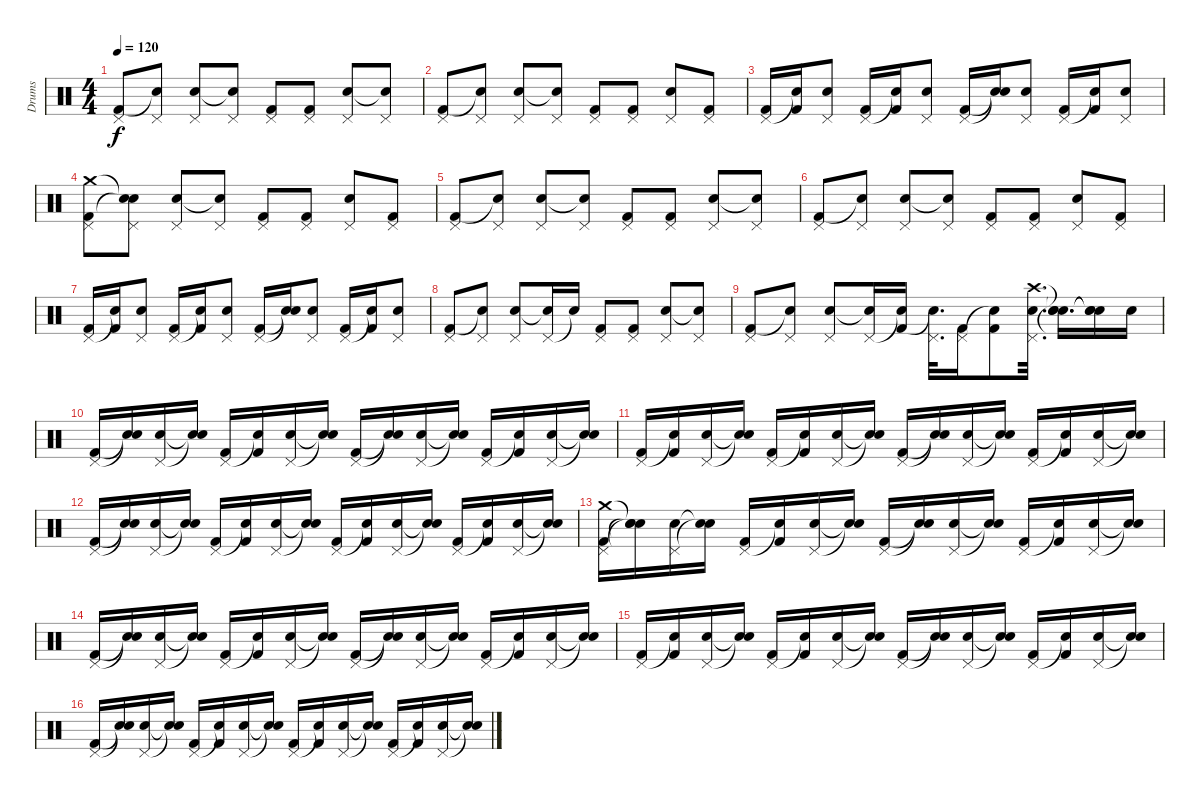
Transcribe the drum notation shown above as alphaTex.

\track ("Drums" "Drums") {instrument percussion}
\staff {score}
\articulation defaults
\ts (4 4)
\tempo 120
\clef neutral
\ks c
("Pedal Hi-Hat (hit)" "Kick (hit) 2").8{dy f} ("Pedal Hi-Hat (hit)" "Snare (hit)"{t}).8 ("Pedal Hi-Hat (hit)" "Snare (hit) 2").8 ("Pedal Hi-Hat (hit)" "Snare (hit)"{t}).8 ("Pedal Hi-Hat (hit)" "Kick (hit) 2").8 ("Pedal Hi-Hat (hit)" "Kick (hit) 2").8 ("Pedal Hi-Hat (hit)" "Snare (hit) 2").8 ("Pedal Hi-Hat (hit)" "Snare (hit)"{t}).8 |
("Pedal Hi-Hat (hit)" "Kick (hit) 2").8 ("Pedal Hi-Hat (hit)" "Snare (hit)"{t}).8 ("Pedal Hi-Hat (hit)" "Snare (hit) 2").8 ("Pedal Hi-Hat (hit)" "Snare (hit)"{t}).8 ("Pedal Hi-Hat (hit)" "Kick (hit) 2").8 ("Pedal Hi-Hat (hit)" "Kick (hit) 2").8 ("Pedal Hi-Hat (hit)" "Snare (hit) 2").8 ("Pedal Hi-Hat (hit)" "Kick (hit) 2").8 |
("Pedal Hi-Hat (hit)" "Kick (hit) 2").16 ("Snare (hit)"{t} "Kick (hit) 2").16 ("Pedal Hi-Hat (hit)" "Snare (hit) 2").8 ("Pedal Hi-Hat (hit)" "Kick (hit) 2").16 ("Snare (hit)"{t} "Kick (hit) 2").16 ("Pedal Hi-Hat (hit)" "Snare (hit) 2").8 ("Pedal Hi-Hat (hit)" "Kick (hit) 2").16 ("Snare (hit)"{t} "Snare (hit)"{t}).16 ("Pedal Hi-Hat (hit)" "Snare (hit) 2").8 ("Pedal Hi-Hat (hit)" "Kick (hit) 2").16 ("Snare (hit)"{t} "Kick (hit) 2").16 ("Pedal Hi-Hat (hit)" "Snare (hit) 2").8 |
("Pedal Hi-Hat (hit)" "Crash medium (hit)" "Kick (hit) 2").8 ("Pedal Hi-Hat (hit)" "Snare (hit)"{t} "Snare (hit)"{t}).8 ("Pedal Hi-Hat (hit)" "Snare (hit) 2").8 ("Pedal Hi-Hat (hit)" "Snare (hit)"{t}).8 ("Pedal Hi-Hat (hit)" "Kick (hit) 2").8 ("Pedal Hi-Hat (hit)" "Kick (hit) 2").8 ("Pedal Hi-Hat (hit)" "Snare (hit) 2").8 ("Pedal Hi-Hat (hit)" "Kick (hit) 2").8 |
("Pedal Hi-Hat (hit)" "Kick (hit) 2").8 ("Pedal Hi-Hat (hit)" "Snare (hit)"{t}).8 ("Pedal Hi-Hat (hit)" "Snare (hit) 2").8 ("Pedal Hi-Hat (hit)" "Snare (hit)"{t}).8 ("Pedal Hi-Hat (hit)" "Kick (hit) 2").8 ("Pedal Hi-Hat (hit)" "Kick (hit) 2").8 ("Pedal Hi-Hat (hit)" "Snare (hit) 2").8 ("Pedal Hi-Hat (hit)" "Snare (hit)"{t}).8 |
("Pedal Hi-Hat (hit)" "Kick (hit) 2").8 ("Pedal Hi-Hat (hit)" "Snare (hit)"{t}).8 ("Pedal Hi-Hat (hit)" "Snare (hit) 2").8 ("Pedal Hi-Hat (hit)" "Snare (hit)"{t}).8 ("Pedal Hi-Hat (hit)" "Kick (hit) 2").8 ("Pedal Hi-Hat (hit)" "Kick (hit) 2").8 ("Pedal Hi-Hat (hit)" "Snare (hit) 2").8 ("Pedal Hi-Hat (hit)" "Kick (hit) 2").8 |
("Pedal Hi-Hat (hit)" "Kick (hit) 2").16 ("Snare (hit)"{t} "Kick (hit) 2").16 ("Pedal Hi-Hat (hit)" "Snare (hit) 2").8 ("Pedal Hi-Hat (hit)" "Kick (hit) 2").16 ("Snare (hit)"{t} "Kick (hit) 2").16 ("Pedal Hi-Hat (hit)" "Snare (hit) 2").8 ("Pedal Hi-Hat (hit)" "Kick (hit) 2").16 ("Snare (hit)"{t} "Snare (hit)"{t}).16 ("Pedal Hi-Hat (hit)" "Snare (hit) 2").8 ("Pedal Hi-Hat (hit)" "Kick (hit) 2").16 ("Snare (hit)"{t} "Kick (hit) 2").16 ("Pedal Hi-Hat (hit)" "Snare (hit) 2").8 |
("Pedal Hi-Hat (hit)" "Kick (hit) 2").8 ("Pedal Hi-Hat (hit)" "Snare (hit)"{t}).8 ("Pedal Hi-Hat (hit)" "Snare (hit) 2").8 ("Pedal Hi-Hat (hit)" "Snare (hit)"{t}).16 "Snare (hit)"{t}.16 ("Pedal Hi-Hat (hit)" "Kick (hit) 2").8 ("Pedal Hi-Hat (hit)" "Kick (hit) 2").8 ("Pedal Hi-Hat (hit)" "Snare (hit) 2").8 ("Pedal Hi-Hat (hit)" "Snare (hit)"{t}).8 |
("Pedal Hi-Hat (hit)" "Kick (hit) 2").8 ("Pedal Hi-Hat (hit)" "Snare (hit)"{t}).8 ("Pedal Hi-Hat (hit)" "Snare (hit) 2").8 ("Pedal Hi-Hat (hit)" "Snare (hit)"{t}).16 ("Snare (hit)"{t} "Kick (hit) 2").16 ("Pedal Hi-Hat (hit)" "Snare (hit)"{t}).32{d} ("Pedal Hi-Hat (hit)" "Kick (hit) 2").16 ("Snare (hit)"{t} "Kick (hit) 2").8 ("Pedal Hi-Hat (hit)" "Crash high (hit)" "Snare (hit) 2").32{d} ("Snare (hit)"{t} "Snare (hit)"{t} "Snare (hit)"{t}).16{d} ("Snare (hit) 2" "Snare (hit)"{t} "Snare (hit)"{t}).16 "Snare (hit) 2".16 |
("Pedal Hi-Hat (hit)" "Kick (hit) 2").16 ("Snare (hit)"{t} "Snare (hit)"{t}).16 ("Pedal Hi-Hat (hit)" "Snare (hit) 2").16 ("Snare (hit)"{t} "Snare (hit)"{t}).16 ("Pedal Hi-Hat (hit)" "Kick (hit) 2").16 ("Snare (hit)"{t} "Kick (hit) 2").16 ("Pedal Hi-Hat (hit)" "Snare (hit) 2").16 ("Snare (hit)"{t} "Snare (hit)"{t}).16 ("Pedal Hi-Hat (hit)" "Kick (hit) 2").16 ("Snare (hit)"{t} "Snare (hit)"{t}).16 ("Pedal Hi-Hat (hit)" "Snare (hit) 2").16 ("Snare (hit)"{t} "Snare (hit)"{t}).16 ("Pedal Hi-Hat (hit)" "Kick (hit) 2").16 ("Snare (hit)"{t} "Kick (hit) 2").16 ("Pedal Hi-Hat (hit)" "Snare (hit) 2").16 ("Snare (hit)"{t} "Snare (hit)"{t}).16 |
("Pedal Hi-Hat (hit)" "Kick (hit) 2").16 ("Snare (hit)"{t} "Kick (hit) 2").16 ("Pedal Hi-Hat (hit)" "Snare (hit) 2").16 ("Snare (hit)"{t} "Snare (hit)"{t}).16 ("Pedal Hi-Hat (hit)" "Kick (hit) 2").16 ("Snare (hit)"{t} "Kick (hit) 2").16 ("Pedal Hi-Hat (hit)" "Snare (hit) 2").16 ("Snare (hit)"{t} "Snare (hit)"{t}).16 ("Pedal Hi-Hat (hit)" "Kick (hit) 2").16 ("Snare (hit)"{t} "Snare (hit)"{t}).16 ("Pedal Hi-Hat (hit)" "Snare (hit) 2").16 ("Snare (hit)"{t} "Snare (hit)"{t}).16 ("Pedal Hi-Hat (hit)" "Kick (hit) 2").16 ("Snare (hit)"{t} "Kick (hit) 2").16 ("Pedal Hi-Hat (hit)" "Snare (hit) 2").16 ("Snare (hit)"{t} "Snare (hit)"{t}).16 |
("Pedal Hi-Hat (hit)" "Kick (hit) 2").16 ("Snare (hit)"{t} "Snare (hit)"{t}).16 ("Pedal Hi-Hat (hit)" "Snare (hit) 2").16 ("Snare (hit)"{t} "Snare (hit)"{t}).16 ("Pedal Hi-Hat (hit)" "Kick (hit) 2").16 ("Snare (hit)"{t} "Kick (hit) 2").16 ("Pedal Hi-Hat (hit)" "Snare (hit) 2").16 ("Snare (hit)"{t} "Snare (hit)"{t}).16 ("Pedal Hi-Hat (hit)" "Kick (hit) 2").16 ("Snare (hit)"{t} "Kick (hit) 2").16 ("Pedal Hi-Hat (hit)" "Snare (hit) 2").16 ("Snare (hit)"{t} "Snare (hit)"{t}).16 ("Pedal Hi-Hat (hit)" "Kick (hit) 2").16 ("Snare (hit)"{t} "Kick (hit) 2").16 ("Pedal Hi-Hat (hit)" "Snare (hit) 2").16 ("Snare (hit)"{t} "Snare (hit)"{t}).16 |
("Pedal Hi-Hat (hit)" "Crash medium (hit)" "Kick (hit) 2").16 ("Snare (hit)"{t} "Snare (hit)"{t} "Snare (hit)"{t}).16 ("Pedal Hi-Hat (hit)" "Snare (hit) 2").16 ("Snare (hit)"{t} "Snare (hit)"{t}).16 ("Pedal Hi-Hat (hit)" "Kick (hit) 2").16 ("Snare (hit)"{t} "Kick (hit) 2").16 ("Pedal Hi-Hat (hit)" "Snare (hit) 2").16 ("Snare (hit)"{t} "Snare (hit)"{t}).16 ("Pedal Hi-Hat (hit)" "Kick (hit) 2").16 ("Snare (hit)"{t} "Snare (hit)"{t}).16 ("Pedal Hi-Hat (hit)" "Snare (hit) 2").16 ("Snare (hit)"{t} "Snare (hit)"{t}).16 ("Pedal Hi-Hat (hit)" "Kick (hit) 2").16 ("Snare (hit)"{t} "Kick (hit) 2").16 ("Pedal Hi-Hat (hit)" "Snare (hit) 2").16 ("Snare (hit)"{t} "Snare (hit)"{t}).16 |
("Pedal Hi-Hat (hit)" "Kick (hit) 2").16 ("Snare (hit)"{t} "Snare (hit)"{t}).16 ("Pedal Hi-Hat (hit)" "Snare (hit) 2").16 ("Snare (hit)"{t} "Snare (hit)"{t}).16 ("Pedal Hi-Hat (hit)" "Kick (hit) 2").16 ("Snare (hit)"{t} "Kick (hit) 2").16 ("Pedal Hi-Hat (hit)" "Snare (hit) 2").16 ("Snare (hit)"{t} "Snare (hit)"{t}).16 ("Pedal Hi-Hat (hit)" "Kick (hit) 2").16 ("Snare (hit)"{t} "Snare (hit)"{t}).16 ("Pedal Hi-Hat (hit)" "Snare (hit) 2").16 ("Snare (hit)"{t} "Snare (hit)"{t}).16 ("Pedal Hi-Hat (hit)" "Kick (hit) 2").16 ("Snare (hit)"{t} "Kick (hit) 2").16 ("Pedal Hi-Hat (hit)" "Snare (hit) 2").16 ("Snare (hit)"{t} "Snare (hit)"{t}).16 |
("Pedal Hi-Hat (hit)" "Kick (hit) 2").16 ("Snare (hit)"{t} "Kick (hit) 2").16 ("Pedal Hi-Hat (hit)" "Snare (hit) 2").16 ("Snare (hit)"{t} "Snare (hit)"{t}).16 ("Pedal Hi-Hat (hit)" "Kick (hit) 2").16 ("Snare (hit)"{t} "Kick (hit) 2").16 ("Pedal Hi-Hat (hit)" "Snare (hit) 2").16 ("Snare (hit)"{t} "Snare (hit)"{t}).16 ("Pedal Hi-Hat (hit)" "Kick (hit) 2").16 ("Snare (hit)"{t} "Snare (hit)"{t}).16 ("Pedal Hi-Hat (hit)" "Snare (hit) 2").16 ("Snare (hit)"{t} "Snare (hit)"{t}).16 ("Pedal Hi-Hat (hit)" "Kick (hit) 2").16 ("Snare (hit)"{t} "Kick (hit) 2").16 ("Pedal Hi-Hat (hit)" "Snare (hit) 2").16 ("Snare (hit)"{t} "Snare (hit)"{t}).16 |
("Pedal Hi-Hat (hit)" "Kick (hit) 2").16 ("Snare (hit)"{t} "Snare (hit)"{t}).16 ("Pedal Hi-Hat (hit)" "Snare (hit) 2").16 ("Snare (hit)"{t} "Snare (hit)"{t}).16 ("Pedal Hi-Hat (hit)" "Kick (hit) 2").16 ("Snare (hit)"{t} "Kick (hit) 2").16 ("Pedal Hi-Hat (hit)" "Snare (hit) 2").16 ("Snare (hit)"{t} "Snare (hit)"{t}).16 ("Pedal Hi-Hat (hit)" "Kick (hit) 2").16 ("Snare (hit)"{t} "Kick (hit) 2").16 ("Pedal Hi-Hat (hit)" "Snare (hit) 2").16 ("Snare (hit)"{t} "Snare (hit)"{t}).16 ("Pedal Hi-Hat (hit)" "Kick (hit) 2").16 ("Snare (hit)"{t} "Kick (hit) 2").16 ("Pedal Hi-Hat (hit)" "Snare (hit) 2").16 ("Snare (hit)"{t} "Snare (hit)"{t}).16
